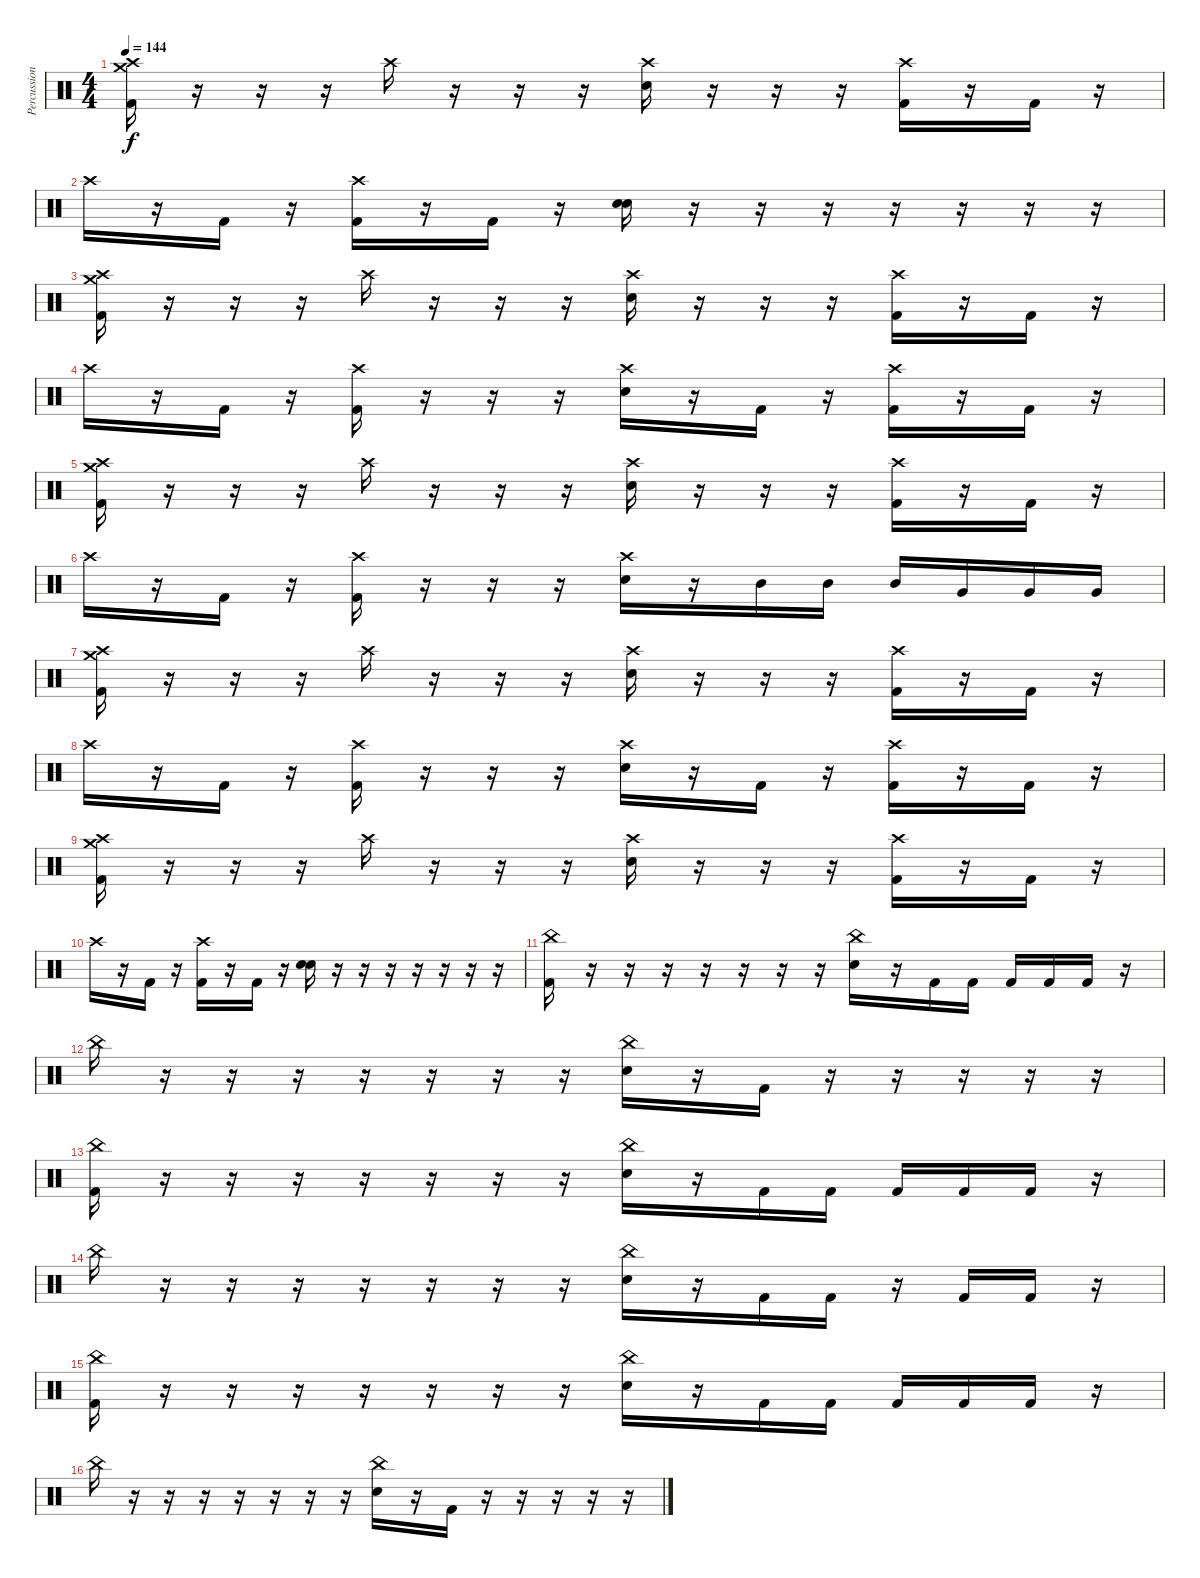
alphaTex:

\track ("Percussion" "Percussion") {instrument percussion}
\staff {score}
\articulation defaults
\ts (4 4)
\tempo 144
\clef neutral
\ks c
("Crash medium (hit)" "Crash high (hit)" "Kick (hit) 2").16{dy f} r.16 r.16 r.16 "Crash high (hit)".16 r.16 r.16 r.16 ("Crash high (hit)" "Electric Snare (hit)").16 r.16 r.16 r.16 ("Crash high (hit)" "Kick (hit) 2").16 r.16 "Kick (hit) 2".16 r.16 |
"Crash high (hit)".16 r.16 "Kick (hit) 2".16 r.16 ("Crash high (hit)" "Kick (hit) 2").16 r.16 "Kick (hit) 2".16 r.16 ("Electric Snare (hit)" "Electric Snare (hit)").16{bd 480} r.16 r.16 r.16 r.16 r.16 r.16 r.16 |
("Crash medium (hit)" "Crash high (hit)" "Kick (hit) 2").16 r.16 r.16 r.16 "Crash high (hit)".16 r.16 r.16 r.16 ("Crash high (hit)" "Electric Snare (hit)").16 r.16 r.16 r.16 ("Crash high (hit)" "Kick (hit) 2").16 r.16 "Kick (hit) 2".16 r.16 |
"Crash high (hit)".16 r.16 "Kick (hit) 2".16 r.16 ("Crash high (hit)" "Kick (hit) 2").16 r.16 r.16 r.16 ("Crash high (hit)" "Electric Snare (hit)").16 r.16 "Kick (hit) 2".16 r.16 ("Crash high (hit)" "Kick (hit) 2").16 r.16 "Kick (hit) 2".16 r.16 |
("Crash medium (hit)" "Crash high (hit)" "Kick (hit) 2").16 r.16 r.16 r.16 "Crash high (hit)".16 r.16 r.16 r.16 ("Crash high (hit)" "Electric Snare (hit)").16 r.16 r.16 r.16 ("Crash high (hit)" "Kick (hit) 2").16 r.16 "Kick (hit) 2".16 r.16 |
"Crash high (hit)".16 r.16 "Kick (hit) 2".16 r.16 ("Crash high (hit)" "Kick (hit) 2").16 r.16 r.16 r.16 ("Crash high (hit)" "Electric Snare (hit)").16 r.16 "Mid Tom (hit)".16 "Mid Tom (hit)".16 "Mid Tom (hit)".16 "Very Low Tom (hit)".16 "Very Low Tom (hit)".16 "Very Low Tom (hit)".16 |
("Crash medium (hit)" "Crash high (hit)" "Kick (hit) 2").16 r.16 r.16 r.16 "Crash high (hit)".16 r.16 r.16 r.16 ("Crash high (hit)" "Electric Snare (hit)").16 r.16 r.16 r.16 ("Crash high (hit)" "Kick (hit) 2").16 r.16 "Kick (hit) 2".16 r.16 |
"Crash high (hit)".16 r.16 "Kick (hit) 2".16 r.16 ("Crash high (hit)" "Kick (hit) 2").16 r.16 r.16 r.16 ("Crash high (hit)" "Electric Snare (hit)").16 r.16 "Kick (hit) 2".16 r.16 ("Crash high (hit)" "Kick (hit) 2").16 r.16 "Kick (hit) 2".16 r.16 |
("Crash medium (hit)" "Crash high (hit)" "Kick (hit) 2").16 r.16 r.16 r.16 "Crash high (hit)".16 r.16 r.16 r.16 ("Crash high (hit)" "Electric Snare (hit)").16 r.16 r.16 r.16 ("Crash high (hit)" "Kick (hit) 2").16 r.16 "Kick (hit) 2".16 r.16 |
"Crash high (hit)".16 r.16 "Kick (hit) 2".16 r.16 ("Crash high (hit)" "Kick (hit) 2").16 r.16 "Kick (hit) 2".16 r.16 ("Electric Snare (hit)" "Electric Snare (hit)").16{bd 480} r.16 r.16 r.16 r.16 r.16 r.16 r.16 |
("China (hit)" "Kick (hit) 2").16 r.16 r.16 r.16 r.16 r.16 r.16 r.16 ("China (hit)" "Electric Snare (hit)").16 r.16 "Kick (hit) 2".16 "Kick (hit) 2".16 "Kick (hit) 2".16 "Kick (hit) 2".16 "Kick (hit) 2".16 r.16 |
"China (hit)".16 r.16 r.16 r.16 r.16 r.16 r.16 r.16 ("China (hit)" "Electric Snare (hit)").16 r.16 "Kick (hit) 2".16 r.16 r.16 r.16 r.16 r.16 |
("China (hit)" "Kick (hit) 2").16 r.16 r.16 r.16 r.16 r.16 r.16 r.16 ("China (hit)" "Electric Snare (hit)").16 r.16 "Kick (hit) 2".16 "Kick (hit) 2".16 "Kick (hit) 2".16 "Kick (hit) 2".16 "Kick (hit) 2".16 r.16 |
"China (hit)".16 r.16 r.16 r.16 r.16 r.16 r.16 r.16 ("China (hit)" "Electric Snare (hit)").16 r.16 "Kick (hit) 2".16 "Kick (hit) 2".16 r.16 "Kick (hit) 2".16 "Kick (hit) 2".16 r.16 |
("China (hit)" "Kick (hit) 2").16 r.16 r.16 r.16 r.16 r.16 r.16 r.16 ("China (hit)" "Electric Snare (hit)").16 r.16 "Kick (hit) 2".16 "Kick (hit) 2".16 "Kick (hit) 2".16 "Kick (hit) 2".16 "Kick (hit) 2".16 r.16 |
"China (hit)".16 r.16 r.16 r.16 r.16 r.16 r.16 r.16 ("China (hit)" "Electric Snare (hit)").16 r.16 "Kick (hit) 2".16 r.16 r.16 r.16 r.16 r.16
